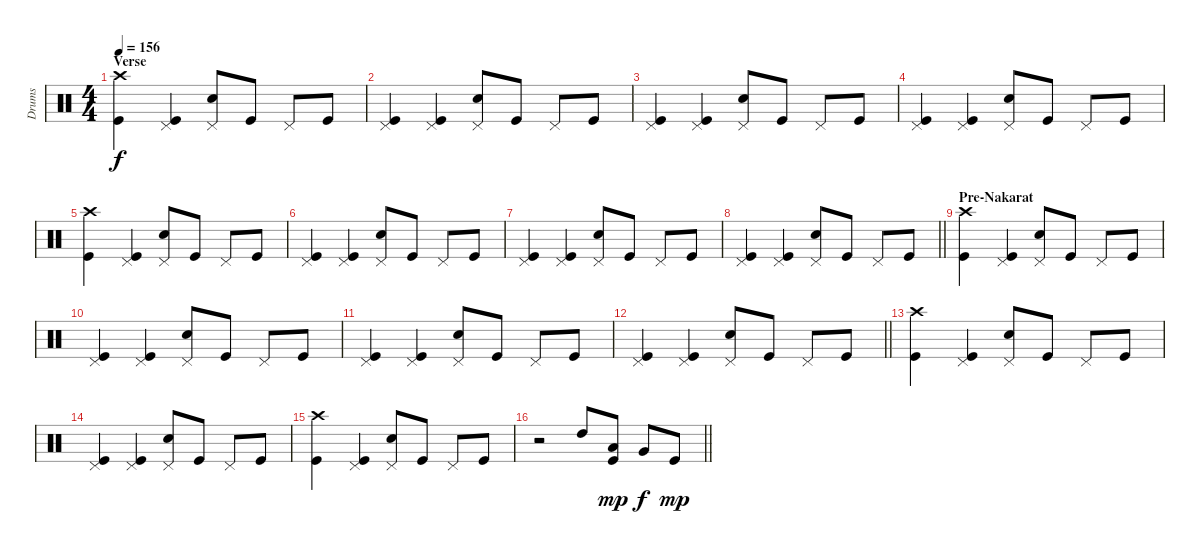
\track ("Drums" "Drums") {instrument percussion}
\staff {score}
\articulation defaults
\ts (4 4)
\section ("" "Verse")
\tempo 156
\clef neutral
\ks c
("Kick (hit)" "Crash high (hit)").4{dy f} ("Kick (hit)" "Pedal Hi-Hat (hit)").4 ("Snare (hit) 2" "Pedal Hi-Hat (hit)").8 "Kick (hit)".8 "Pedal Hi-Hat (hit)".8 "Kick (hit)".8 |
("Kick (hit)" "Pedal Hi-Hat (hit)").4 ("Kick (hit)" "Pedal Hi-Hat (hit)").4 ("Snare (hit) 2" "Pedal Hi-Hat (hit)").8 "Kick (hit)".8 "Pedal Hi-Hat (hit)".8 "Kick (hit)".8 |
("Kick (hit)" "Pedal Hi-Hat (hit)").4 ("Kick (hit)" "Pedal Hi-Hat (hit)").4 ("Snare (hit) 2" "Pedal Hi-Hat (hit)").8 "Kick (hit)".8 "Pedal Hi-Hat (hit)".8 "Kick (hit)".8 |
("Kick (hit)" "Pedal Hi-Hat (hit)").4 ("Kick (hit)" "Pedal Hi-Hat (hit)").4 ("Snare (hit) 2" "Pedal Hi-Hat (hit)").8 "Kick (hit)".8 "Pedal Hi-Hat (hit)".8 "Kick (hit)".8 |
("Kick (hit)" "Crash high (hit)").4 ("Kick (hit)" "Pedal Hi-Hat (hit)").4 ("Snare (hit) 2" "Pedal Hi-Hat (hit)").8 "Kick (hit)".8 "Pedal Hi-Hat (hit)".8 "Kick (hit)".8 |
("Kick (hit)" "Pedal Hi-Hat (hit)").4 ("Kick (hit)" "Pedal Hi-Hat (hit)").4 ("Snare (hit) 2" "Pedal Hi-Hat (hit)").8 "Kick (hit)".8 "Pedal Hi-Hat (hit)".8 "Kick (hit)".8 |
("Kick (hit)" "Pedal Hi-Hat (hit)").4 ("Kick (hit)" "Pedal Hi-Hat (hit)").4 ("Snare (hit) 2" "Pedal Hi-Hat (hit)").8 "Kick (hit)".8 "Pedal Hi-Hat (hit)".8 "Kick (hit)".8 |
\barLineRight lightlight
("Kick (hit)" "Pedal Hi-Hat (hit)").4 ("Kick (hit)" "Pedal Hi-Hat (hit)").4 ("Snare (hit) 2" "Pedal Hi-Hat (hit)").8 "Kick (hit)".8 "Pedal Hi-Hat (hit)".8 "Kick (hit)".8 |
\section ("" "Pre-Nakarat")
("Kick (hit)" "Crash high (hit)").4 ("Kick (hit)" "Pedal Hi-Hat (hit)").4 ("Snare (hit) 2" "Pedal Hi-Hat (hit)").8 "Kick (hit)".8 "Pedal Hi-Hat (hit)".8 "Kick (hit)".8 |
("Kick (hit)" "Pedal Hi-Hat (hit)").4 ("Kick (hit)" "Pedal Hi-Hat (hit)").4 ("Snare (hit) 2" "Pedal Hi-Hat (hit)").8 "Kick (hit)".8 "Pedal Hi-Hat (hit)".8 "Kick (hit)".8 |
("Kick (hit)" "Pedal Hi-Hat (hit)").4 ("Kick (hit)" "Pedal Hi-Hat (hit)").4 ("Snare (hit) 2" "Pedal Hi-Hat (hit)").8 "Kick (hit)".8 "Pedal Hi-Hat (hit)".8 "Kick (hit)".8 |
\barLineRight lightlight
("Kick (hit)" "Pedal Hi-Hat (hit)").4 ("Kick (hit)" "Pedal Hi-Hat (hit)").4 ("Snare (hit) 2" "Pedal Hi-Hat (hit)").8 "Kick (hit)".8 "Pedal Hi-Hat (hit)".8 "Kick (hit)".8 |
("Kick (hit)" "Crash high (hit)").4 ("Kick (hit)" "Pedal Hi-Hat (hit)").4 ("Snare (hit) 2" "Pedal Hi-Hat (hit)").8 "Kick (hit)".8 "Pedal Hi-Hat (hit)".8 "Kick (hit)".8 |
("Kick (hit)" "Pedal Hi-Hat (hit)").4 ("Kick (hit)" "Pedal Hi-Hat (hit)").4 ("Snare (hit) 2" "Pedal Hi-Hat (hit)").8 "Kick (hit)".8 "Pedal Hi-Hat (hit)".8 "Kick (hit)".8 |
("Kick (hit)" "Crash high (hit)").4 ("Kick (hit)" "Pedal Hi-Hat (hit)").4 ("Snare (hit) 2" "Pedal Hi-Hat (hit)").8 "Kick (hit)".8 "Pedal Hi-Hat (hit)".8 "Kick (hit)".8 |
\barLineRight lightlight
r.2 "High Tom (hit)".8 ("Kick (hit)" "Low Tom (hit)").8{dy mp} "Very Low Tom (hit)".8{dy f} "Kick (hit)".8{dy mp}
